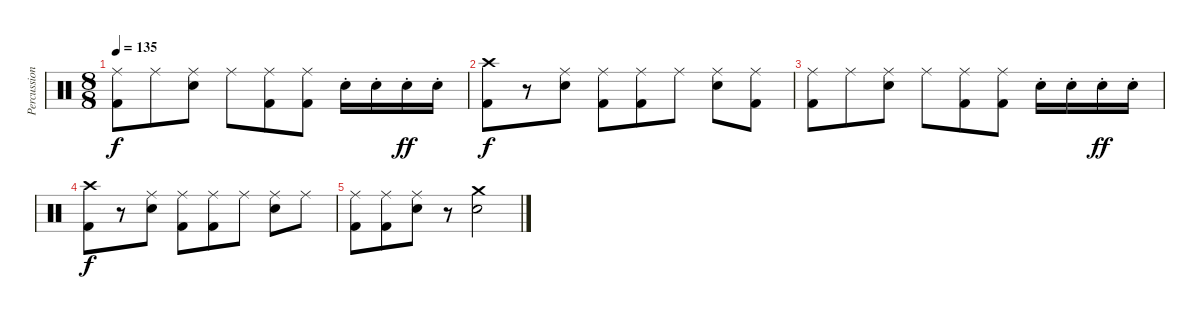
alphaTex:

\track ("Percussion" "Percussion") {instrument percussion}
\staff {score}
\articulation defaults
\ts (8 8)
\tempo 135
\clef neutral
\ks c
("Ride (middle)" "Kick (hit) 2").8{dy f} "Ride (middle)".8 ("Ride (middle)" "Snare (hit) 2").8 "Ride (middle)".8 ("Ride (middle)" "Kick (hit) 2").8 ("Ride (middle)" "Kick (hit) 2").8 "Snare (hit) 2"{st}.16 "Snare (hit) 2"{st}.16 "Snare (hit) 2"{st}.16{dy ff} "Snare (hit) 2"{st}.16 |
("Crash high (hit)" "Kick (hit) 2").8{dy f} r.8 ("Ride (middle)" "Snare (hit) 2").8 ("Ride (middle)" "Kick (hit) 2").8 ("Ride (middle)" "Kick (hit) 2").8 "Ride (middle)".8 ("Ride (middle)" "Snare (hit) 2").8 ("Ride (middle)" "Kick (hit) 2").8 |
("Ride (middle)" "Kick (hit) 2").8 "Ride (middle)".8 ("Ride (middle)" "Snare (hit) 2").8 "Ride (middle)".8 ("Ride (middle)" "Kick (hit) 2").8 ("Ride (middle)" "Kick (hit) 2").8 "Snare (hit) 2"{st}.16 "Snare (hit) 2"{st}.16 "Snare (hit) 2"{st}.16{dy ff} "Snare (hit) 2"{st}.16 |
("Crash high (hit)" "Kick (hit) 2").8{dy f} r.8 ("Ride (middle)" "Snare (hit) 2").8 ("Ride (middle)" "Kick (hit) 2").8 ("Ride (middle)" "Kick (hit) 2").8 "Ride (middle)".8 ("Ride (middle)" "Snare (hit) 2").8 "Ride (middle)".8 |
("Ride (middle)" "Kick (hit) 2").8 ("Ride (middle)" "Kick (hit) 2").8 ("Ride (middle)" "Snare (hit) 2").8 r.8 ("Crash medium (hit)" "Snare (hit) 2").2
